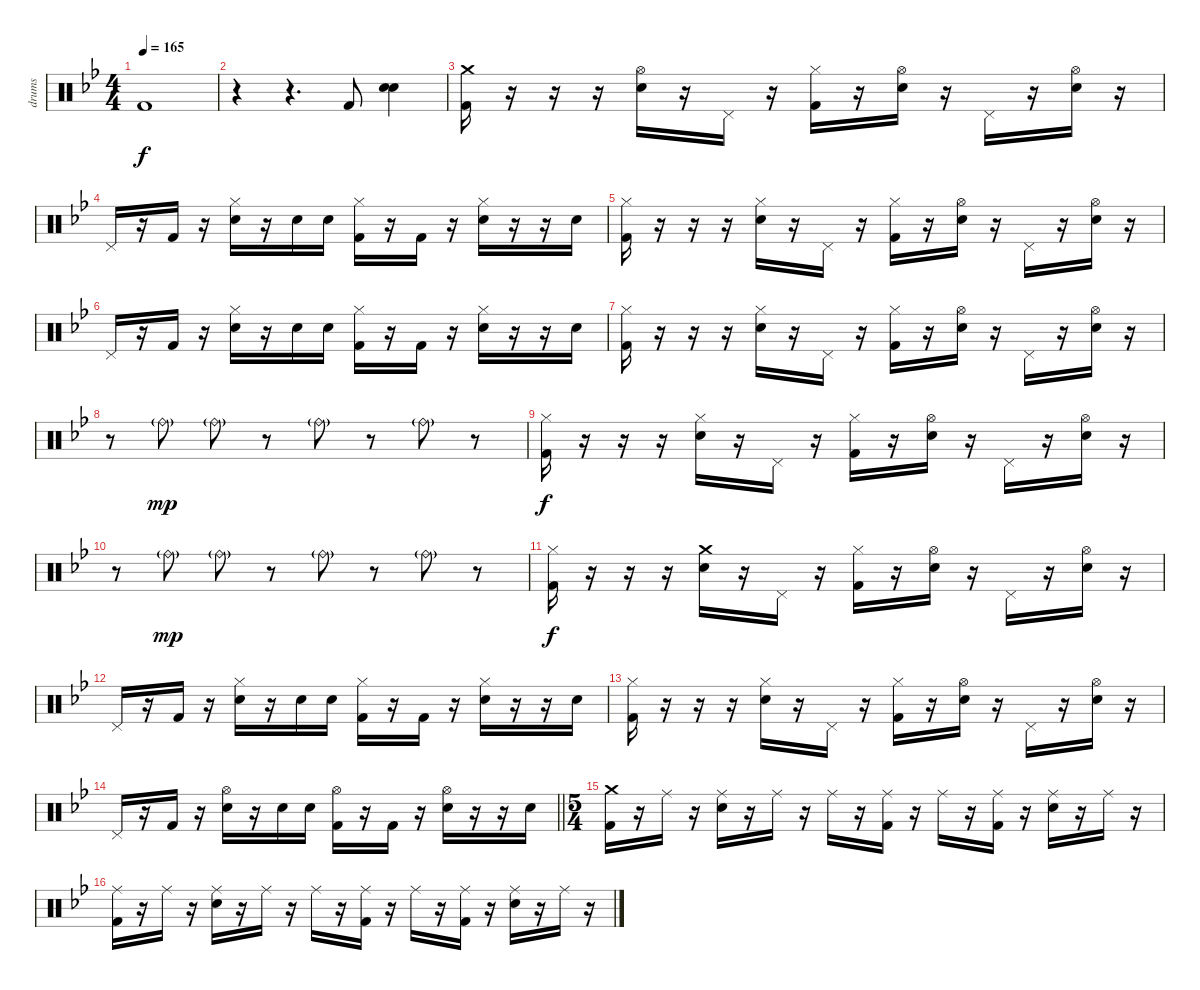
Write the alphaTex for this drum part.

\track ("drums" "drums") {instrument percussion}
\staff {score}
\articulation defaults
\ts (4 4)
\tempo 165
\clef neutral
\ks bb "Kick (hit) 2".1{dy f}
|
r.4 r.4{d} "Kick (hit) 2".8 ("Snare (hit) 2" "Snare (hit) 2").4 |
("Crash medium (hit)" "Kick (hit) 2").16 r.16 r.16 r.16 ("Hi-Hat (open)" "Snare (hit) 2").16 r.16 "Pedal Hi-Hat (hit)".16 r.16 ("Hi-Hat (closed)" "Kick (hit) 2").16 r.16 ("Hi-Hat (open)" "Snare (hit) 2").16 r.16 "Pedal Hi-Hat (hit)".16 r.16 ("Hi-Hat (open)" "Snare (hit) 2").16 r.16 |
"Pedal Hi-Hat (hit)".16 r.16 "Kick (hit) 2".16 r.16 ("Hi-Hat (closed)" "Snare (hit) 2").16 r.16 "Snare (hit) 2".16 "Snare (hit) 2".16 ("Hi-Hat (closed)" "Kick (hit) 2").16 r.16 "Kick (hit) 2".16 r.16 ("Hi-Hat (closed)" "Snare (hit) 2").16 r.16 r.16 "Snare (hit) 2".16 |
("Hi-Hat (closed)" "Kick (hit) 2").16 r.16 r.16 r.16 ("Hi-Hat (closed)" "Snare (hit) 2").16 r.16 "Pedal Hi-Hat (hit)".16 r.16 ("Hi-Hat (closed)" "Kick (hit) 2").16 r.16 ("Hi-Hat (open)" "Snare (hit) 2").16 r.16 "Pedal Hi-Hat (hit)".16 r.16 ("Hi-Hat (open)" "Snare (hit) 2").16 r.16 |
"Pedal Hi-Hat (hit)".16 r.16 "Kick (hit) 2".16 r.16 ("Hi-Hat (closed)" "Snare (hit) 2").16 r.16 "Snare (hit) 2".16 "Snare (hit) 2".16 ("Hi-Hat (closed)" "Kick (hit) 2").16 r.16 "Kick (hit) 2".16 r.16 ("Hi-Hat (closed)" "Snare (hit) 2").16 r.16 r.16 "Snare (hit) 2".16 |
("Hi-Hat (closed)" "Kick (hit) 2").16 r.16 r.16 r.16 ("Hi-Hat (closed)" "Snare (hit) 2").16 r.16 "Pedal Hi-Hat (hit)".16 r.16 ("Hi-Hat (closed)" "Kick (hit) 2").16 r.16 ("Hi-Hat (open)" "Snare (hit) 2").16 r.16 "Pedal Hi-Hat (hit)".16 r.16 ("Hi-Hat (open)" "Snare (hit) 2").16 r.16 |
r.8 "Ride (bell)"{g}.8{dy mp} "Ride (bell)"{g}.8 r.8 "Ride (bell)"{g}.8 r.8 "Ride (bell)"{g}.8 r.8 |
("Hi-Hat (closed)" "Kick (hit) 2").16{dy f} r.16 r.16 r.16 ("Hi-Hat (closed)" "Snare (hit) 2").16 r.16 "Pedal Hi-Hat (hit)".16 r.16 ("Hi-Hat (closed)" "Kick (hit) 2").16 r.16 ("Hi-Hat (open)" "Snare (hit) 2").16 r.16 "Pedal Hi-Hat (hit)".16 r.16 ("Hi-Hat (open)" "Snare (hit) 2").16 r.16 |
r.8 "Ride (bell)"{g}.8{dy mp} "Ride (bell)"{g}.8 r.8 "Ride (bell)"{g}.8 r.8 "Ride (bell)"{g}.8 r.8 |
("Hi-Hat (closed)" "Kick (hit) 2").16{dy f} r.16 r.16 r.16 ("Crash medium (hit)" "Snare (hit) 2").16 r.16 "Pedal Hi-Hat (hit)".16 r.16 ("Hi-Hat (closed)" "Kick (hit) 2").16 r.16 ("Hi-Hat (open)" "Snare (hit) 2").16 r.16 "Pedal Hi-Hat (hit)".16 r.16 ("Hi-Hat (open)" "Snare (hit) 2").16 r.16 |
"Pedal Hi-Hat (hit)".16 r.16 "Kick (hit) 2".16 r.16 ("Hi-Hat (closed)" "Snare (hit) 2").16 r.16 "Snare (hit) 2".16 "Snare (hit) 2".16 ("Hi-Hat (closed)" "Kick (hit) 2").16 r.16 "Kick (hit) 2".16 r.16 ("Hi-Hat (closed)" "Snare (hit) 2").16 r.16 r.16 "Snare (hit) 2".16 |
("Hi-Hat (closed)" "Kick (hit) 2").16 r.16 r.16 r.16 ("Hi-Hat (closed)" "Snare (hit) 2").16 r.16 "Pedal Hi-Hat (hit)".16 r.16 ("Hi-Hat (closed)" "Kick (hit) 2").16 r.16 ("Hi-Hat (open)" "Snare (hit) 2").16 r.16 "Pedal Hi-Hat (hit)".16 r.16 ("Hi-Hat (open)" "Snare (hit) 2").16 r.16 |
\barLineRight lightlight "Pedal Hi-Hat (hit)".16
r.16 "Kick (hit) 2".16 r.16 ("Hi-Hat (open)" "Snare (hit) 2").16 r.16 "Snare (hit) 2".16 "Snare (hit) 2".16 ("Hi-Hat (open)" "Kick (hit) 2").16 r.16 "Kick (hit) 2".16 r.16 ("Hi-Hat (open)" "Snare (hit) 2").16 r.16 r.16 "Snare (hit) 2".16 |
\ts (5 4)
("Crash medium (hit)" "Kick (hit) 2").16 r.16 "Ride (middle)".16 r.16 ("Ride (middle)" "Snare (hit) 2").16 r.16 "Ride (middle)".16 r.16 "Ride (middle)".16 r.16 ("Ride (middle)" "Kick (hit) 2").16 r.16 "Ride (middle)".16 r.16 ("Ride (middle)" "Kick (hit) 2").16 r.16 ("Ride (middle)" "Snare (hit) 2").16 r.16 "Ride (middle)".16 r.16 |
("Ride (middle)" "Kick (hit) 2").16 r.16 "Ride (middle)".16 r.16 ("Ride (middle)" "Snare (hit) 2").16 r.16 "Ride (middle)".16 r.16 "Ride (middle)".16 r.16 ("Ride (middle)" "Kick (hit) 2").16 r.16 "Ride (middle)".16 r.16 ("Ride (middle)" "Kick (hit) 2").16 r.16 ("Ride (middle)" "Snare (hit) 2").16 r.16 "Ride (middle)".16 r.16
